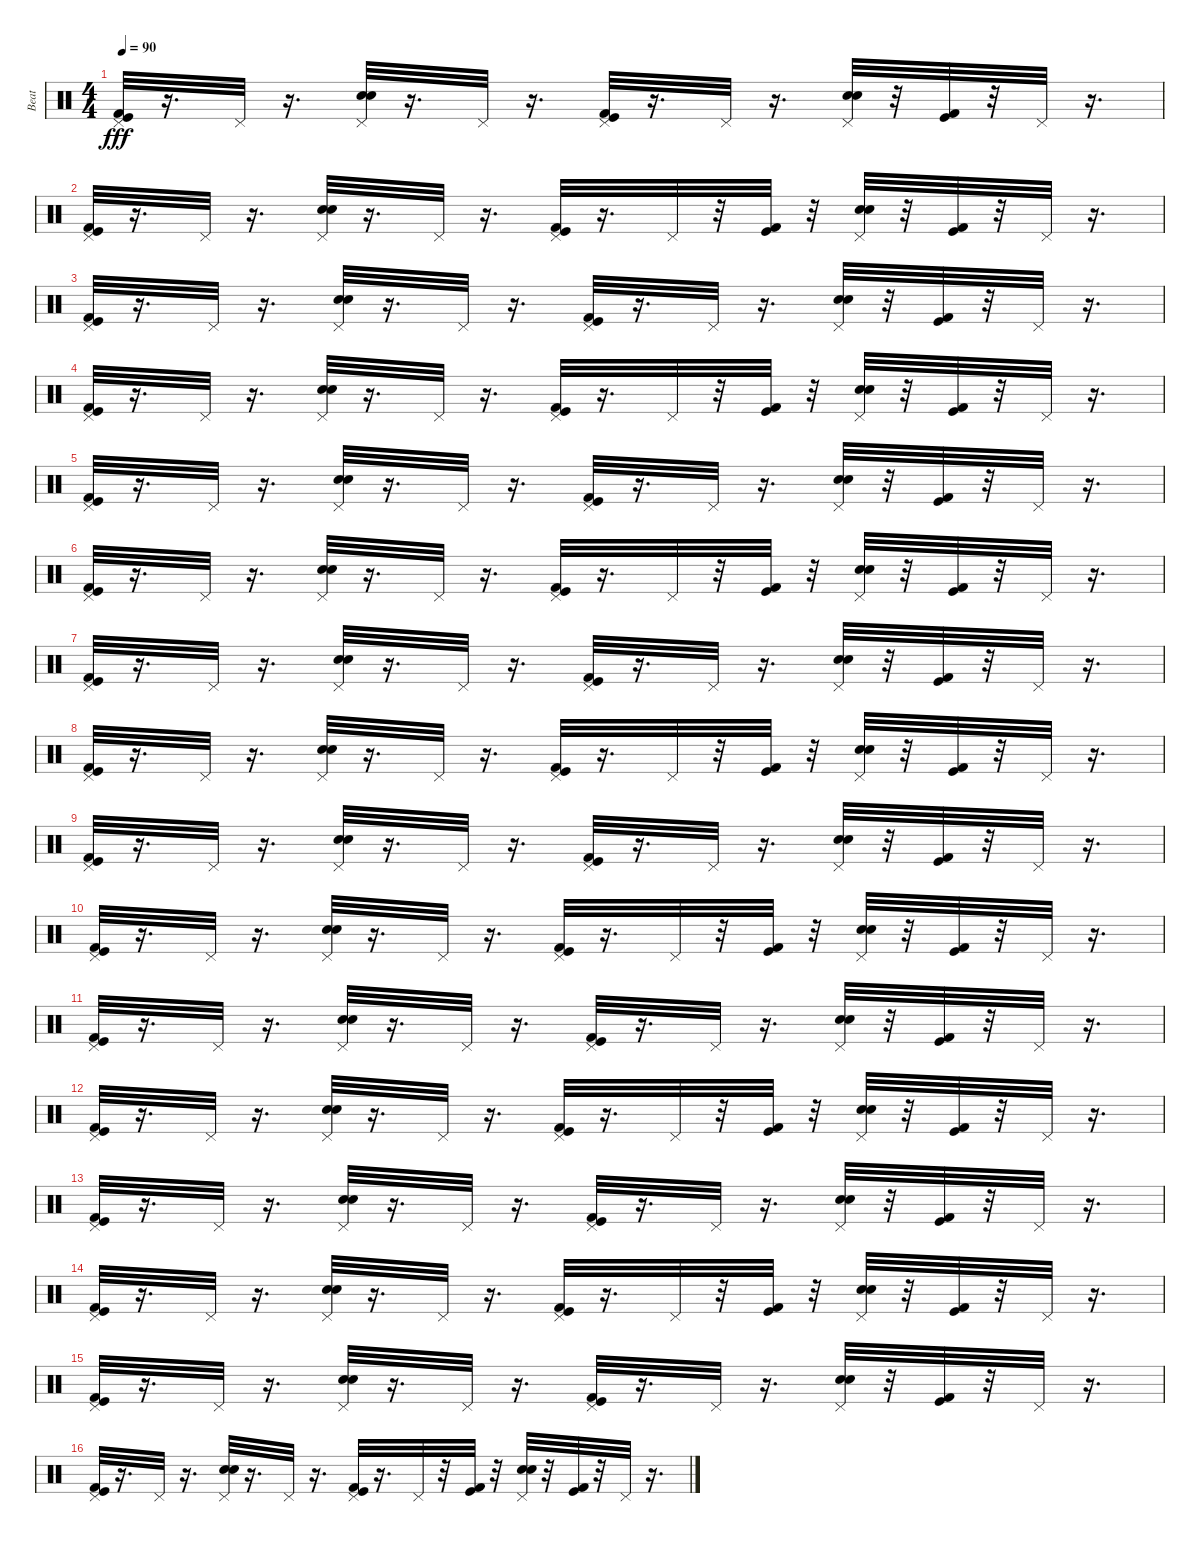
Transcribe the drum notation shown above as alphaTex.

\track ("Beat" "Beat") {instrument percussion}
\staff {score}
\articulation defaults
\ts (4 4)
\tempo 90
\clef neutral
\ks c
("Kick (hit) 2" "Kick (hit)" "Pedal Hi-Hat (hit)").32{dy fff} r.16{d} "Pedal Hi-Hat (hit)".32 r.16{d} ("Electric Snare (hit)" "Snare (hit) 2" "Pedal Hi-Hat (hit)").32 r.16{d} "Pedal Hi-Hat (hit)".32 r.16{d} ("Kick (hit) 2" "Kick (hit)" "Pedal Hi-Hat (hit)").32 r.16{d} "Pedal Hi-Hat (hit)".32 r.16{d} ("Electric Snare (hit)" "Snare (hit) 2" "Pedal Hi-Hat (hit)").32 r.32 ("Kick (hit) 2" "Kick (hit)").32 r.32 "Pedal Hi-Hat (hit)".32 r.16{d} |
("Kick (hit) 2" "Kick (hit)" "Pedal Hi-Hat (hit)").32 r.16{d} "Pedal Hi-Hat (hit)".32 r.16{d} ("Electric Snare (hit)" "Snare (hit) 2" "Pedal Hi-Hat (hit)").32 r.16{d} "Pedal Hi-Hat (hit)".32 r.16{d} ("Kick (hit) 2" "Kick (hit)" "Pedal Hi-Hat (hit)").32 r.16{d} "Pedal Hi-Hat (hit)".32 r.32 ("Kick (hit) 2" "Kick (hit)").32 r.32 ("Electric Snare (hit)" "Snare (hit) 2" "Pedal Hi-Hat (hit)").32 r.32 ("Kick (hit) 2" "Kick (hit)").32 r.32 "Pedal Hi-Hat (hit)".32 r.16{d} |
("Kick (hit) 2" "Kick (hit)" "Pedal Hi-Hat (hit)").32 r.16{d} "Pedal Hi-Hat (hit)".32 r.16{d} ("Electric Snare (hit)" "Snare (hit) 2" "Pedal Hi-Hat (hit)").32 r.16{d} "Pedal Hi-Hat (hit)".32 r.16{d} ("Kick (hit) 2" "Kick (hit)" "Pedal Hi-Hat (hit)").32 r.16{d} "Pedal Hi-Hat (hit)".32 r.16{d} ("Electric Snare (hit)" "Snare (hit) 2" "Pedal Hi-Hat (hit)").32 r.32 ("Kick (hit) 2" "Kick (hit)").32 r.32 "Pedal Hi-Hat (hit)".32 r.16{d} |
("Kick (hit) 2" "Kick (hit)" "Pedal Hi-Hat (hit)").32 r.16{d} "Pedal Hi-Hat (hit)".32 r.16{d} ("Electric Snare (hit)" "Snare (hit) 2" "Pedal Hi-Hat (hit)").32 r.16{d} "Pedal Hi-Hat (hit)".32 r.16{d} ("Kick (hit) 2" "Kick (hit)" "Pedal Hi-Hat (hit)").32 r.16{d} "Pedal Hi-Hat (hit)".32 r.32 ("Kick (hit) 2" "Kick (hit)").32 r.32 ("Electric Snare (hit)" "Snare (hit) 2" "Pedal Hi-Hat (hit)").32 r.32 ("Kick (hit) 2" "Kick (hit)").32 r.32 "Pedal Hi-Hat (hit)".32 r.16{d} |
("Kick (hit) 2" "Kick (hit)" "Pedal Hi-Hat (hit)").32 r.16{d} "Pedal Hi-Hat (hit)".32 r.16{d} ("Electric Snare (hit)" "Snare (hit) 2" "Pedal Hi-Hat (hit)").32 r.16{d} "Pedal Hi-Hat (hit)".32 r.16{d} ("Kick (hit) 2" "Kick (hit)" "Pedal Hi-Hat (hit)").32 r.16{d} "Pedal Hi-Hat (hit)".32 r.16{d} ("Electric Snare (hit)" "Snare (hit) 2" "Pedal Hi-Hat (hit)").32 r.32 ("Kick (hit) 2" "Kick (hit)").32 r.32 "Pedal Hi-Hat (hit)".32 r.16{d} |
("Kick (hit) 2" "Kick (hit)" "Pedal Hi-Hat (hit)").32 r.16{d} "Pedal Hi-Hat (hit)".32 r.16{d} ("Electric Snare (hit)" "Snare (hit) 2" "Pedal Hi-Hat (hit)").32 r.16{d} "Pedal Hi-Hat (hit)".32 r.16{d} ("Kick (hit) 2" "Kick (hit)" "Pedal Hi-Hat (hit)").32 r.16{d} "Pedal Hi-Hat (hit)".32 r.32 ("Kick (hit) 2" "Kick (hit)").32 r.32 ("Electric Snare (hit)" "Snare (hit) 2" "Pedal Hi-Hat (hit)").32 r.32 ("Kick (hit) 2" "Kick (hit)").32 r.32 "Pedal Hi-Hat (hit)".32 r.16{d} |
("Kick (hit) 2" "Kick (hit)" "Pedal Hi-Hat (hit)").32 r.16{d} "Pedal Hi-Hat (hit)".32 r.16{d} ("Electric Snare (hit)" "Snare (hit) 2" "Pedal Hi-Hat (hit)").32 r.16{d} "Pedal Hi-Hat (hit)".32 r.16{d} ("Kick (hit) 2" "Kick (hit)" "Pedal Hi-Hat (hit)").32 r.16{d} "Pedal Hi-Hat (hit)".32 r.16{d} ("Electric Snare (hit)" "Snare (hit) 2" "Pedal Hi-Hat (hit)").32 r.32 ("Kick (hit) 2" "Kick (hit)").32 r.32 "Pedal Hi-Hat (hit)".32 r.16{d} |
("Kick (hit) 2" "Kick (hit)" "Pedal Hi-Hat (hit)").32 r.16{d} "Pedal Hi-Hat (hit)".32 r.16{d} ("Electric Snare (hit)" "Snare (hit) 2" "Pedal Hi-Hat (hit)").32 r.16{d} "Pedal Hi-Hat (hit)".32 r.16{d} ("Kick (hit) 2" "Kick (hit)" "Pedal Hi-Hat (hit)").32 r.16{d} "Pedal Hi-Hat (hit)".32 r.32 ("Kick (hit) 2" "Kick (hit)").32 r.32 ("Electric Snare (hit)" "Snare (hit) 2" "Pedal Hi-Hat (hit)").32 r.32 ("Kick (hit) 2" "Kick (hit)").32 r.32 "Pedal Hi-Hat (hit)".32 r.16{d} |
("Kick (hit) 2" "Kick (hit)" "Pedal Hi-Hat (hit)").32 r.16{d} "Pedal Hi-Hat (hit)".32 r.16{d} ("Electric Snare (hit)" "Snare (hit) 2" "Pedal Hi-Hat (hit)").32 r.16{d} "Pedal Hi-Hat (hit)".32 r.16{d} ("Kick (hit) 2" "Kick (hit)" "Pedal Hi-Hat (hit)").32 r.16{d} "Pedal Hi-Hat (hit)".32 r.16{d} ("Electric Snare (hit)" "Snare (hit) 2" "Pedal Hi-Hat (hit)").32 r.32 ("Kick (hit) 2" "Kick (hit)").32 r.32 "Pedal Hi-Hat (hit)".32 r.16{d} |
("Kick (hit) 2" "Kick (hit)" "Pedal Hi-Hat (hit)").32 r.16{d} "Pedal Hi-Hat (hit)".32 r.16{d} ("Electric Snare (hit)" "Snare (hit) 2" "Pedal Hi-Hat (hit)").32 r.16{d} "Pedal Hi-Hat (hit)".32 r.16{d} ("Kick (hit) 2" "Kick (hit)" "Pedal Hi-Hat (hit)").32 r.16{d} "Pedal Hi-Hat (hit)".32 r.32 ("Kick (hit) 2" "Kick (hit)").32 r.32 ("Electric Snare (hit)" "Snare (hit) 2" "Pedal Hi-Hat (hit)").32 r.32 ("Kick (hit) 2" "Kick (hit)").32 r.32 "Pedal Hi-Hat (hit)".32 r.16{d} |
("Kick (hit) 2" "Kick (hit)" "Pedal Hi-Hat (hit)").32 r.16{d} "Pedal Hi-Hat (hit)".32 r.16{d} ("Electric Snare (hit)" "Snare (hit) 2" "Pedal Hi-Hat (hit)").32 r.16{d} "Pedal Hi-Hat (hit)".32 r.16{d} ("Kick (hit) 2" "Kick (hit)" "Pedal Hi-Hat (hit)").32 r.16{d} "Pedal Hi-Hat (hit)".32 r.16{d} ("Electric Snare (hit)" "Snare (hit) 2" "Pedal Hi-Hat (hit)").32 r.32 ("Kick (hit) 2" "Kick (hit)").32 r.32 "Pedal Hi-Hat (hit)".32 r.16{d} |
("Kick (hit) 2" "Kick (hit)" "Pedal Hi-Hat (hit)").32 r.16{d} "Pedal Hi-Hat (hit)".32 r.16{d} ("Electric Snare (hit)" "Snare (hit) 2" "Pedal Hi-Hat (hit)").32 r.16{d} "Pedal Hi-Hat (hit)".32 r.16{d} ("Kick (hit) 2" "Kick (hit)" "Pedal Hi-Hat (hit)").32 r.16{d} "Pedal Hi-Hat (hit)".32 r.32 ("Kick (hit) 2" "Kick (hit)").32 r.32 ("Electric Snare (hit)" "Snare (hit) 2" "Pedal Hi-Hat (hit)").32 r.32 ("Kick (hit) 2" "Kick (hit)").32 r.32 "Pedal Hi-Hat (hit)".32 r.16{d} |
("Kick (hit) 2" "Kick (hit)" "Pedal Hi-Hat (hit)").32 r.16{d} "Pedal Hi-Hat (hit)".32 r.16{d} ("Electric Snare (hit)" "Snare (hit) 2" "Pedal Hi-Hat (hit)").32 r.16{d} "Pedal Hi-Hat (hit)".32 r.16{d} ("Kick (hit) 2" "Kick (hit)" "Pedal Hi-Hat (hit)").32 r.16{d} "Pedal Hi-Hat (hit)".32 r.16{d} ("Electric Snare (hit)" "Snare (hit) 2" "Pedal Hi-Hat (hit)").32 r.32 ("Kick (hit) 2" "Kick (hit)").32 r.32 "Pedal Hi-Hat (hit)".32 r.16{d} |
("Kick (hit) 2" "Kick (hit)" "Pedal Hi-Hat (hit)").32 r.16{d} "Pedal Hi-Hat (hit)".32 r.16{d} ("Electric Snare (hit)" "Snare (hit) 2" "Pedal Hi-Hat (hit)").32 r.16{d} "Pedal Hi-Hat (hit)".32 r.16{d} ("Kick (hit) 2" "Kick (hit)" "Pedal Hi-Hat (hit)").32 r.16{d} "Pedal Hi-Hat (hit)".32 r.32 ("Kick (hit) 2" "Kick (hit)").32 r.32 ("Electric Snare (hit)" "Snare (hit) 2" "Pedal Hi-Hat (hit)").32 r.32 ("Kick (hit) 2" "Kick (hit)").32 r.32 "Pedal Hi-Hat (hit)".32 r.16{d} |
("Kick (hit) 2" "Kick (hit)" "Pedal Hi-Hat (hit)").32 r.16{d} "Pedal Hi-Hat (hit)".32 r.16{d} ("Electric Snare (hit)" "Snare (hit) 2" "Pedal Hi-Hat (hit)").32 r.16{d} "Pedal Hi-Hat (hit)".32 r.16{d} ("Kick (hit) 2" "Kick (hit)" "Pedal Hi-Hat (hit)").32 r.16{d} "Pedal Hi-Hat (hit)".32 r.16{d} ("Electric Snare (hit)" "Snare (hit) 2" "Pedal Hi-Hat (hit)").32 r.32 ("Kick (hit) 2" "Kick (hit)").32 r.32 "Pedal Hi-Hat (hit)".32 r.16{d} |
("Kick (hit) 2" "Kick (hit)" "Pedal Hi-Hat (hit)").32 r.16{d} "Pedal Hi-Hat (hit)".32 r.16{d} ("Electric Snare (hit)" "Snare (hit) 2" "Pedal Hi-Hat (hit)").32 r.16{d} "Pedal Hi-Hat (hit)".32 r.16{d} ("Kick (hit) 2" "Kick (hit)" "Pedal Hi-Hat (hit)").32 r.16{d} "Pedal Hi-Hat (hit)".32 r.32 ("Kick (hit) 2" "Kick (hit)").32 r.32 ("Electric Snare (hit)" "Snare (hit) 2" "Pedal Hi-Hat (hit)").32 r.32 ("Kick (hit) 2" "Kick (hit)").32 r.32 "Pedal Hi-Hat (hit)".32 r.16{d}
